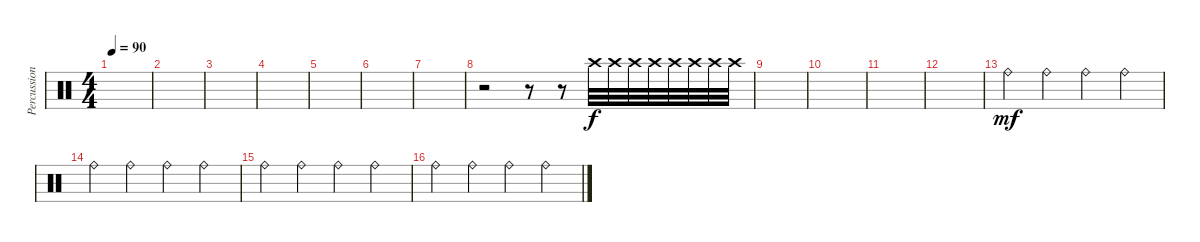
\track ("Percussion" "Percussion") {instrument percussion}
\staff {score}
\articulation defaults
\ts (4 4)
\tempo 90
\clef neutral
\ks c
|
|
|
|
|
|
|
r.2 r.8 r.8 "Crash high (hit)".32 "Crash high (hit)".32 "Crash high (hit)".32 "Crash high (hit)".32 "Crash high (hit)".32 "Crash high (hit)".32 "Crash high (hit)".32 "Crash high (hit)".32 |
|
|
|
|
"Ride (bell)".4{dy mf} "Ride (bell)".4 "Ride (bell)".4 "Ride (bell)".4 |
"Ride (bell)".4 "Ride (bell)".4 "Ride (bell)".4 "Ride (bell)".4 |
"Ride (bell)".4 "Ride (bell)".4 "Ride (bell)".4 "Ride (bell)".4 |
"Ride (bell)".4 "Ride (bell)".4 "Ride (bell)".4 "Ride (bell)".4
